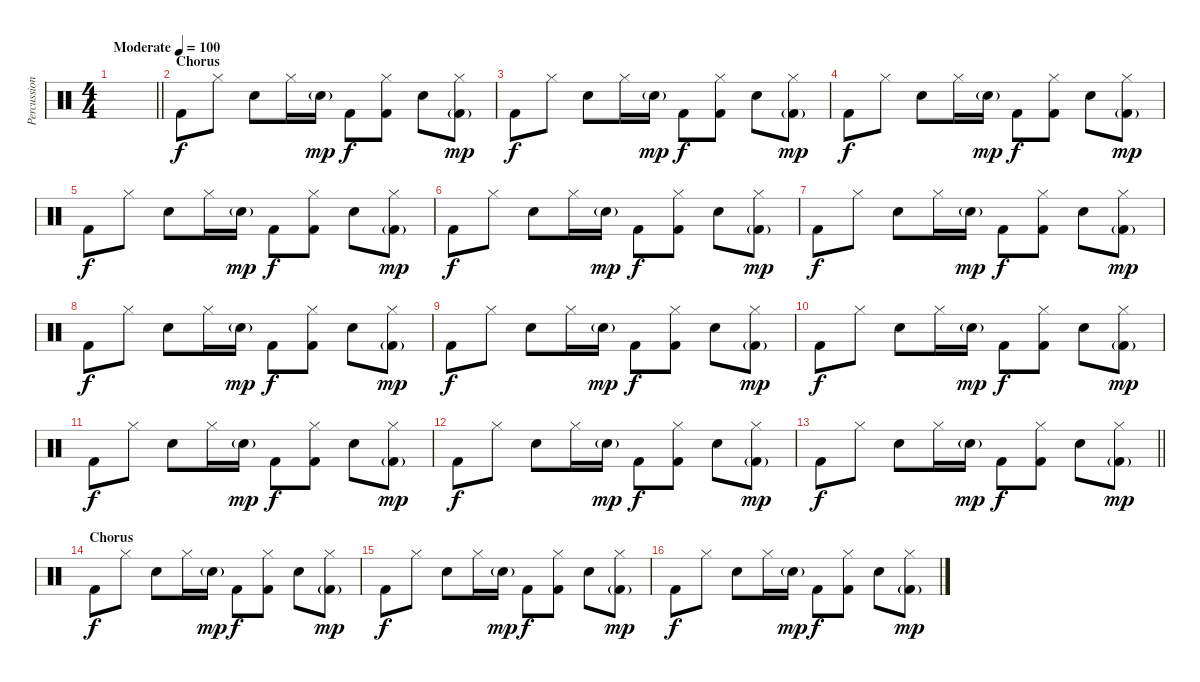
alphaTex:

\track ("Percussion" "Percussion") {instrument percussion}
\staff {score}
\articulation defaults
\ts (4 4)
\tempo (100 "Moderate")
\clef neutral
\barLineRight lightlight
\ks c
|
\section ("" "Chorus")
"Kick (hit) 2".8 "Hi-Hat (closed)".8 "Snare (hit) 2".8 "Hi-Hat (closed)".16 "Snare (hit) 2"{g}.16{dy mp} "Kick (hit) 2".8{dy f} ("Hi-Hat (closed)" "Kick (hit) 2").8 "Snare (hit) 2".8 ("Hi-Hat (closed)" "Kick (hit) 2"{g}).8{dy mp} |
"Kick (hit) 2".8{dy f} "Hi-Hat (closed)".8 "Snare (hit) 2".8 "Hi-Hat (closed)".16 "Snare (hit) 2"{g}.16{dy mp} "Kick (hit) 2".8{dy f} ("Hi-Hat (closed)" "Kick (hit) 2").8 "Snare (hit) 2".8 ("Hi-Hat (closed)" "Kick (hit) 2"{g}).8{dy mp} |
"Kick (hit) 2".8{dy f} "Hi-Hat (closed)".8 "Snare (hit) 2".8 "Hi-Hat (closed)".16 "Snare (hit) 2"{g}.16{dy mp} "Kick (hit) 2".8{dy f} ("Hi-Hat (closed)" "Kick (hit) 2").8 "Snare (hit) 2".8 ("Hi-Hat (closed)" "Kick (hit) 2"{g}).8{dy mp} |
"Kick (hit) 2".8{dy f} "Hi-Hat (closed)".8 "Snare (hit) 2".8 "Hi-Hat (closed)".16 "Snare (hit) 2"{g}.16{dy mp} "Kick (hit) 2".8{dy f} ("Hi-Hat (closed)" "Kick (hit) 2").8 "Snare (hit) 2".8 ("Hi-Hat (closed)" "Kick (hit) 2"{g}).8{dy mp} |
"Kick (hit) 2".8{dy f} "Hi-Hat (closed)".8 "Snare (hit) 2".8 "Hi-Hat (closed)".16 "Snare (hit) 2"{g}.16{dy mp} "Kick (hit) 2".8{dy f} ("Hi-Hat (closed)" "Kick (hit) 2").8 "Snare (hit) 2".8 ("Hi-Hat (closed)" "Kick (hit) 2"{g}).8{dy mp} |
"Kick (hit) 2".8{dy f} "Hi-Hat (closed)".8 "Snare (hit) 2".8 "Hi-Hat (closed)".16 "Snare (hit) 2"{g}.16{dy mp} "Kick (hit) 2".8{dy f} ("Hi-Hat (closed)" "Kick (hit) 2").8 "Snare (hit) 2".8 ("Hi-Hat (closed)" "Kick (hit) 2"{g}).8{dy mp} |
"Kick (hit) 2".8{dy f} "Hi-Hat (closed)".8 "Snare (hit) 2".8 "Hi-Hat (closed)".16 "Snare (hit) 2"{g}.16{dy mp} "Kick (hit) 2".8{dy f} ("Hi-Hat (closed)" "Kick (hit) 2").8 "Snare (hit) 2".8 ("Hi-Hat (closed)" "Kick (hit) 2"{g}).8{dy mp} |
"Kick (hit) 2".8{dy f} "Hi-Hat (closed)".8 "Snare (hit) 2".8 "Hi-Hat (closed)".16 "Snare (hit) 2"{g}.16{dy mp} "Kick (hit) 2".8{dy f} ("Hi-Hat (closed)" "Kick (hit) 2").8 "Snare (hit) 2".8 ("Hi-Hat (closed)" "Kick (hit) 2"{g}).8{dy mp} |
"Kick (hit) 2".8{dy f} "Hi-Hat (closed)".8 "Snare (hit) 2".8 "Hi-Hat (closed)".16 "Snare (hit) 2"{g}.16{dy mp} "Kick (hit) 2".8{dy f} ("Hi-Hat (closed)" "Kick (hit) 2").8 "Snare (hit) 2".8 ("Hi-Hat (closed)" "Kick (hit) 2"{g}).8{dy mp} |
"Kick (hit) 2".8{dy f} "Hi-Hat (closed)".8 "Snare (hit) 2".8 "Hi-Hat (closed)".16 "Snare (hit) 2"{g}.16{dy mp} "Kick (hit) 2".8{dy f} ("Hi-Hat (closed)" "Kick (hit) 2").8 "Snare (hit) 2".8 ("Hi-Hat (closed)" "Kick (hit) 2"{g}).8{dy mp} |
"Kick (hit) 2".8{dy f} "Hi-Hat (closed)".8 "Snare (hit) 2".8 "Hi-Hat (closed)".16 "Snare (hit) 2"{g}.16{dy mp} "Kick (hit) 2".8{dy f} ("Hi-Hat (closed)" "Kick (hit) 2").8 "Snare (hit) 2".8 ("Hi-Hat (closed)" "Kick (hit) 2"{g}).8{dy mp} |
\barLineRight lightlight "Kick (hit) 2".8{dy f} "Hi-Hat (closed)".8 "Snare (hit) 2".8 "Hi-Hat (closed)".16 "Snare (hit) 2"{g}.16{dy mp} "Kick (hit) 2".8{dy f}
("Hi-Hat (closed)" "Kick (hit) 2").8 "Snare (hit) 2".8 ("Hi-Hat (closed)" "Kick (hit) 2"{g}).8{dy mp} |
\section ("" "Chorus")
"Kick (hit) 2".8{dy f} "Hi-Hat (closed)".8 "Snare (hit) 2".8 "Hi-Hat (closed)".16 "Snare (hit) 2"{g}.16{dy mp} "Kick (hit) 2".8{dy f} ("Hi-Hat (closed)" "Kick (hit) 2").8 "Snare (hit) 2".8 ("Hi-Hat (closed)" "Kick (hit) 2"{g}).8{dy mp} |
"Kick (hit) 2".8{dy f} "Hi-Hat (closed)".8 "Snare (hit) 2".8 "Hi-Hat (closed)".16 "Snare (hit) 2"{g}.16{dy mp} "Kick (hit) 2".8{dy f} ("Hi-Hat (closed)" "Kick (hit) 2").8 "Snare (hit) 2".8 ("Hi-Hat (closed)" "Kick (hit) 2"{g}).8{dy mp} |
"Kick (hit) 2".8{dy f} "Hi-Hat (closed)".8 "Snare (hit) 2".8 "Hi-Hat (closed)".16 "Snare (hit) 2"{g}.16{dy mp} "Kick (hit) 2".8{dy f} ("Hi-Hat (closed)" "Kick (hit) 2").8 "Snare (hit) 2".8 ("Hi-Hat (closed)" "Kick (hit) 2"{g}).8{dy mp}
